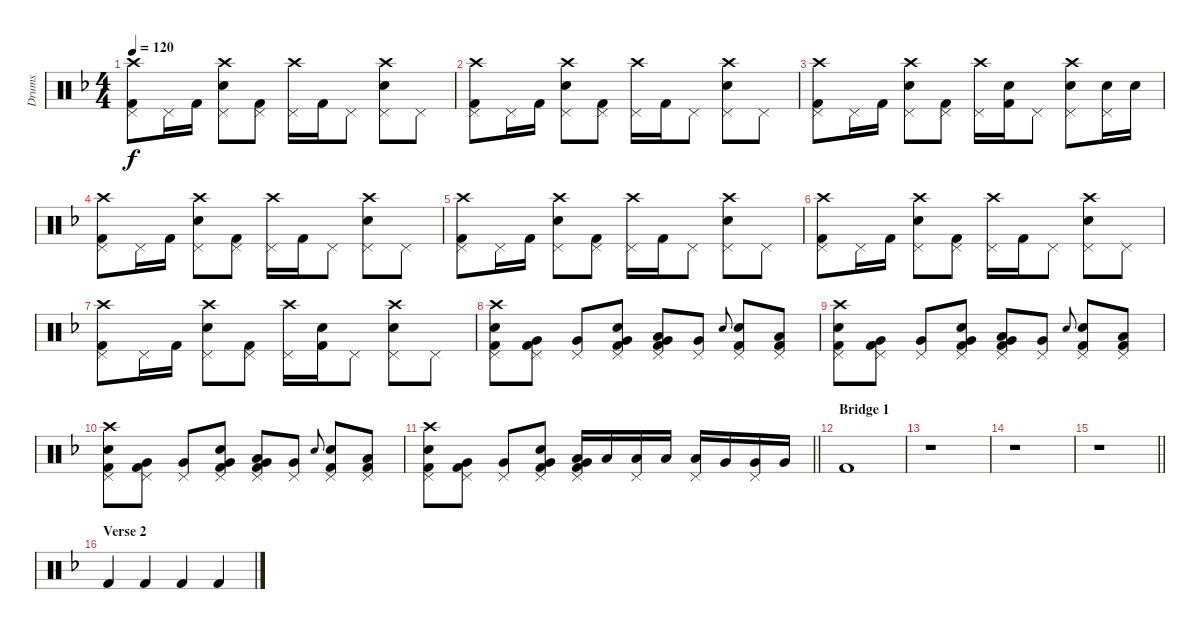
\track ("Drums" "Drums") {instrument percussion}
\staff {score}
\articulation defaults
\ts (4 4)
\tempo 120
\clef neutral
\ks f
("Crash high (hit)" "Kick (hit) 2" "Pedal Hi-Hat (hit)").8{dy f} "Pedal Hi-Hat (hit)".16 "Kick (hit) 2".16 ("Crash high (hit)" "Snare (hit) 2" "Pedal Hi-Hat (hit)").8 ("Kick (hit) 2" "Pedal Hi-Hat (hit)").8 ("Crash high (hit)" "Pedal Hi-Hat (hit)").16 "Kick (hit) 2".16 "Pedal Hi-Hat (hit)".8 ("Crash high (hit)" "Snare (hit) 2" "Pedal Hi-Hat (hit)").8 "Pedal Hi-Hat (hit)".8 |
("Crash high (hit)" "Kick (hit) 2" "Pedal Hi-Hat (hit)").8 "Pedal Hi-Hat (hit)".16 "Kick (hit) 2".16 ("Crash high (hit)" "Snare (hit) 2" "Pedal Hi-Hat (hit)").8 ("Kick (hit) 2" "Pedal Hi-Hat (hit)").8 ("Crash high (hit)" "Pedal Hi-Hat (hit)").16 "Kick (hit) 2".16 "Pedal Hi-Hat (hit)".8 ("Crash high (hit)" "Snare (hit) 2" "Pedal Hi-Hat (hit)").8 "Pedal Hi-Hat (hit)".8 |
("Crash high (hit)" "Kick (hit) 2" "Pedal Hi-Hat (hit)").8 "Pedal Hi-Hat (hit)".16 "Kick (hit) 2".16 ("Crash high (hit)" "Snare (hit) 2" "Pedal Hi-Hat (hit)").8 ("Kick (hit) 2" "Pedal Hi-Hat (hit)").8 ("Crash high (hit)" "Pedal Hi-Hat (hit)").16 ("Snare (hit) 2" "Kick (hit) 2").16 "Pedal Hi-Hat (hit)".8 ("Crash high (hit)" "Snare (hit) 2" "Pedal Hi-Hat (hit)").8 ("Snare (hit) 2" "Pedal Hi-Hat (hit)").16 "Snare (hit) 2".16 |
("Crash high (hit)" "Kick (hit) 2" "Pedal Hi-Hat (hit)").8 "Pedal Hi-Hat (hit)".16 "Kick (hit) 2".16 ("Crash high (hit)" "Snare (hit) 2" "Pedal Hi-Hat (hit)").8 ("Kick (hit) 2" "Pedal Hi-Hat (hit)").8 ("Crash high (hit)" "Pedal Hi-Hat (hit)").16 "Kick (hit) 2".16 "Pedal Hi-Hat (hit)".8 ("Crash high (hit)" "Snare (hit) 2" "Pedal Hi-Hat (hit)").8 "Pedal Hi-Hat (hit)".8 |
("Crash high (hit)" "Kick (hit) 2" "Pedal Hi-Hat (hit)").8 "Pedal Hi-Hat (hit)".16 "Kick (hit) 2".16 ("Crash high (hit)" "Snare (hit) 2" "Pedal Hi-Hat (hit)").8 ("Kick (hit) 2" "Pedal Hi-Hat (hit)").8 ("Crash high (hit)" "Pedal Hi-Hat (hit)").16 "Kick (hit) 2".16 "Pedal Hi-Hat (hit)".8 ("Crash high (hit)" "Snare (hit) 2" "Pedal Hi-Hat (hit)").8 "Pedal Hi-Hat (hit)".8 |
("Crash high (hit)" "Kick (hit) 2" "Pedal Hi-Hat (hit)").8 "Pedal Hi-Hat (hit)".16 "Kick (hit) 2".16 ("Crash high (hit)" "Snare (hit) 2" "Pedal Hi-Hat (hit)").8 ("Kick (hit) 2" "Pedal Hi-Hat (hit)").8 ("Crash high (hit)" "Pedal Hi-Hat (hit)").16 "Kick (hit) 2".16 "Pedal Hi-Hat (hit)".8 ("Crash high (hit)" "Snare (hit) 2" "Pedal Hi-Hat (hit)").8 "Pedal Hi-Hat (hit)".8 |
("Crash high (hit)" "Kick (hit) 2" "Pedal Hi-Hat (hit)").8 "Pedal Hi-Hat (hit)".16 "Kick (hit) 2".16 ("Crash high (hit)" "Snare (hit) 2" "Pedal Hi-Hat (hit)").8 ("Kick (hit) 2" "Pedal Hi-Hat (hit)").8 ("Crash high (hit)" "Pedal Hi-Hat (hit)").16 ("Snare (hit) 2" "Kick (hit) 2").16 "Pedal Hi-Hat (hit)".8 ("Crash high (hit)" "Snare (hit) 2" "Pedal Hi-Hat (hit)").8 "Pedal Hi-Hat (hit)".8 |
("Crash high (hit)" "Snare (hit) 2" "Kick (hit) 2" "Pedal Hi-Hat (hit)").8 ("Very Low Tom (hit)" "Kick (hit) 2" "Pedal Hi-Hat (hit)").8 ("Very Low Tom (hit)" "Pedal Hi-Hat (hit)").8 ("Snare (hit) 2" "Very Low Tom (hit)" "Kick (hit) 2" "Pedal Hi-Hat (hit)").8 ("Low Tom (hit)" "Very Low Tom (hit)" "Kick (hit) 2" "Pedal Hi-Hat (hit)").8 ("Very Low Tom (hit)" "Pedal Hi-Hat (hit)").8 "Snare (hit) 2".8{gr onbeat} ("Snare (hit) 2" "Kick (hit) 2" "Pedal Hi-Hat (hit)").8 ("Low Tom (hit)" "Kick (hit) 2" "Pedal Hi-Hat (hit)").8 |
("Crash high (hit)" "Snare (hit) 2" "Kick (hit) 2" "Pedal Hi-Hat (hit)").8 ("Very Low Tom (hit)" "Kick (hit) 2" "Pedal Hi-Hat (hit)").8 ("Very Low Tom (hit)" "Pedal Hi-Hat (hit)").8 ("Snare (hit) 2" "Very Low Tom (hit)" "Kick (hit) 2" "Pedal Hi-Hat (hit)").8 ("Low Tom (hit)" "Very Low Tom (hit)" "Kick (hit) 2" "Pedal Hi-Hat (hit)").8 ("Very Low Tom (hit)" "Pedal Hi-Hat (hit)").8 "Snare (hit) 2".8{gr onbeat} ("Snare (hit) 2" "Kick (hit) 2" "Pedal Hi-Hat (hit)").8 ("Low Tom (hit)" "Kick (hit) 2" "Pedal Hi-Hat (hit)").8 |
("Crash high (hit)" "Snare (hit) 2" "Kick (hit) 2" "Pedal Hi-Hat (hit)").8 ("Very Low Tom (hit)" "Kick (hit) 2" "Pedal Hi-Hat (hit)").8 ("Very Low Tom (hit)" "Pedal Hi-Hat (hit)").8 ("Snare (hit) 2" "Very Low Tom (hit)" "Kick (hit) 2" "Pedal Hi-Hat (hit)").8 ("Low Tom (hit)" "Very Low Tom (hit)" "Kick (hit) 2" "Pedal Hi-Hat (hit)").8 ("Very Low Tom (hit)" "Pedal Hi-Hat (hit)").8 "Snare (hit) 2".8{gr onbeat} ("Snare (hit) 2" "Kick (hit) 2" "Pedal Hi-Hat (hit)").8 ("Low Tom (hit)" "Kick (hit) 2" "Pedal Hi-Hat (hit)").8 |
\barLineRight lightlight
("Crash high (hit)" "Snare (hit) 2" "Kick (hit) 2" "Pedal Hi-Hat (hit)").8 ("Very Low Tom (hit)" "Kick (hit) 2" "Pedal Hi-Hat (hit)").8 ("Very Low Tom (hit)" "Pedal Hi-Hat (hit)").8 ("Snare (hit) 2" "Very Low Tom (hit)" "Kick (hit) 2" "Pedal Hi-Hat (hit)").8 ("Low Tom (hit)" "Very Low Tom (hit)" "Kick (hit) 2" "Pedal Hi-Hat (hit)").16 "Low Tom (hit)".16 ("Low Floor Tom (hit)" "Pedal Hi-Hat (hit)").16 "Low Floor Tom (hit)".16 ("Low Floor Tom (hit)" "Pedal Hi-Hat (hit)").16 "Very Low Tom (hit)".16 ("Very Low Tom (hit)" "Pedal Hi-Hat (hit)").16 "Very Low Tom (hit)".16 |
\section ("" "Bridge 1")
"Kick (hit) 2".1 |
r.1 |
r.1 |
\barLineRight lightlight
r.1 |
\section ("" "Verse 2")
"Kick (hit) 2".4 "Kick (hit) 2".4 "Kick (hit) 2".4 "Kick (hit) 2".4
